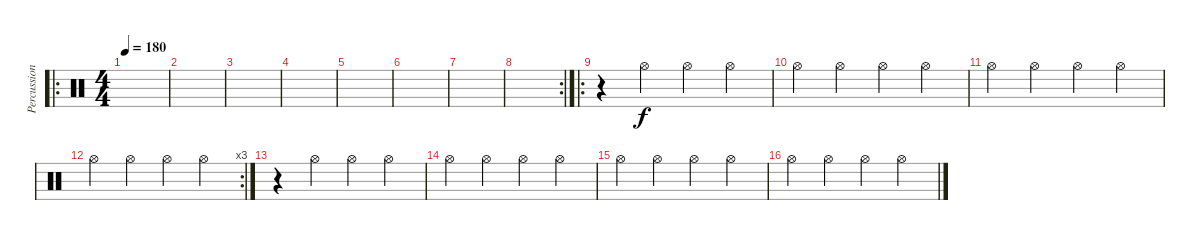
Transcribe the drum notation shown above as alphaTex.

\track ("Percussion" "Percussion") {instrument percussion}
\staff {score}
\articulation defaults
\ro
\ts (4 4)
\tempo 180
\clef neutral
\ks c
|
|
|
|
|
|
|
\rc 2
|
\ro
r.4 "Hi-Hat (open)".4 "Hi-Hat (open)".4 "Hi-Hat (open)".4 |
"Hi-Hat (open)".4 "Hi-Hat (open)".4 "Hi-Hat (open)".4 "Hi-Hat (open)".4 |
"Hi-Hat (open)".4 "Hi-Hat (open)".4 "Hi-Hat (open)".4 "Hi-Hat (open)".4 |
\rc 3 "Hi-Hat (open)".4 "Hi-Hat (open)".4 "Hi-Hat (open)".4 "Hi-Hat (open)".4
|
r.4 "Hi-Hat (open)".4 "Hi-Hat (open)".4 "Hi-Hat (open)".4 |
"Hi-Hat (open)".4 "Hi-Hat (open)".4 "Hi-Hat (open)".4 "Hi-Hat (open)".4 |
"Hi-Hat (open)".4 "Hi-Hat (open)".4 "Hi-Hat (open)".4 "Hi-Hat (open)".4 |
"Hi-Hat (open)".4 "Hi-Hat (open)".4 "Hi-Hat (open)".4 "Hi-Hat (open)".4
